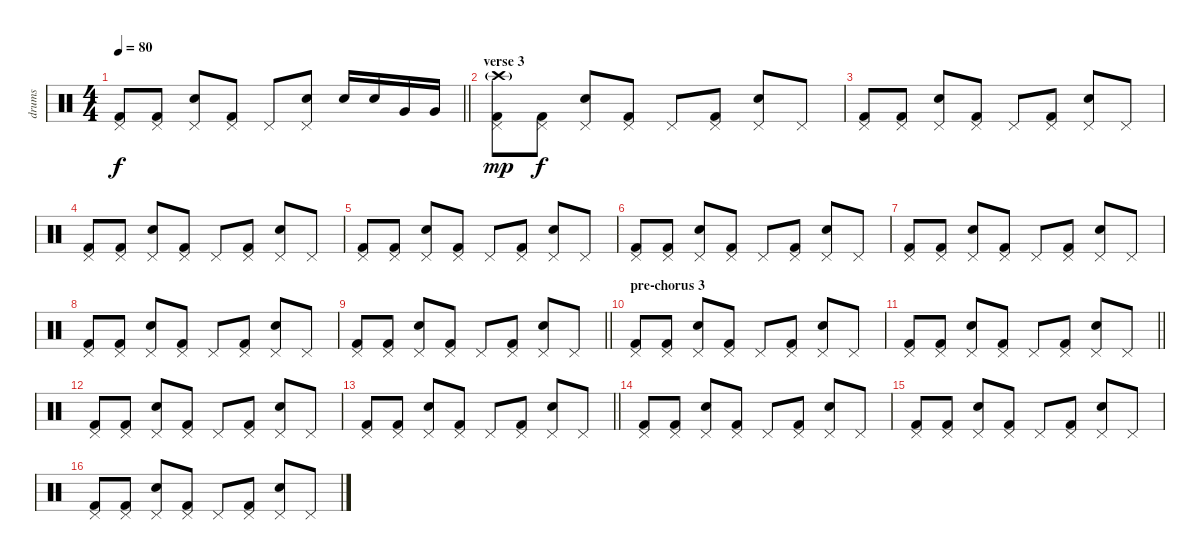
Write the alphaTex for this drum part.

\track ("drums" "drums") {instrument percussion}
\staff {score}
\articulation defaults
\ts (4 4)
\tempo 80
\clef neutral
\barLineRight lightlight
\ks c
("Kick (hit) 2" "Pedal Hi-Hat (hit)").8{dy f} ("Kick (hit) 2" "Pedal Hi-Hat (hit)").8 ("Electric Snare (hit)" "Pedal Hi-Hat (hit)").8 ("Kick (hit) 2" "Pedal Hi-Hat (hit)").8 "Pedal Hi-Hat (hit)".8 ("Electric Snare (hit)" "Pedal Hi-Hat (hit)").8 "Electric Snare (hit)".16 "Electric Snare (hit)".16 "Very Low Tom (hit)".16 "Very Low Tom (hit)".16 |
\section ("" "verse 3")
("Kick (hit) 2" "Pedal Hi-Hat (hit)" "Crash high (hit)"{g}).8{dy mp} ("Kick (hit) 2" "Pedal Hi-Hat (hit)").8{dy f} ("Electric Snare (hit)" "Pedal Hi-Hat (hit)").8 ("Kick (hit) 2" "Pedal Hi-Hat (hit)").8 "Pedal Hi-Hat (hit)".8 ("Kick (hit) 2" "Pedal Hi-Hat (hit)").8 ("Electric Snare (hit)" "Pedal Hi-Hat (hit)").8 "Pedal Hi-Hat (hit)".8 |
("Kick (hit) 2" "Pedal Hi-Hat (hit)").8 ("Kick (hit) 2" "Pedal Hi-Hat (hit)").8 ("Electric Snare (hit)" "Pedal Hi-Hat (hit)").8 ("Kick (hit) 2" "Pedal Hi-Hat (hit)").8 "Pedal Hi-Hat (hit)".8 ("Kick (hit) 2" "Pedal Hi-Hat (hit)").8 ("Electric Snare (hit)" "Pedal Hi-Hat (hit)").8 "Pedal Hi-Hat (hit)".8 |
("Kick (hit) 2" "Pedal Hi-Hat (hit)").8 ("Kick (hit) 2" "Pedal Hi-Hat (hit)").8 ("Electric Snare (hit)" "Pedal Hi-Hat (hit)").8 ("Kick (hit) 2" "Pedal Hi-Hat (hit)").8 "Pedal Hi-Hat (hit)".8 ("Kick (hit) 2" "Pedal Hi-Hat (hit)").8 ("Electric Snare (hit)" "Pedal Hi-Hat (hit)").8 "Pedal Hi-Hat (hit)".8 |
("Kick (hit) 2" "Pedal Hi-Hat (hit)").8 ("Kick (hit) 2" "Pedal Hi-Hat (hit)").8 ("Electric Snare (hit)" "Pedal Hi-Hat (hit)").8 ("Kick (hit) 2" "Pedal Hi-Hat (hit)").8 "Pedal Hi-Hat (hit)".8 ("Kick (hit) 2" "Pedal Hi-Hat (hit)").8 ("Electric Snare (hit)" "Pedal Hi-Hat (hit)").8 "Pedal Hi-Hat (hit)".8 |
("Kick (hit) 2" "Pedal Hi-Hat (hit)").8 ("Kick (hit) 2" "Pedal Hi-Hat (hit)").8 ("Electric Snare (hit)" "Pedal Hi-Hat (hit)").8 ("Kick (hit) 2" "Pedal Hi-Hat (hit)").8 "Pedal Hi-Hat (hit)".8 ("Kick (hit) 2" "Pedal Hi-Hat (hit)").8 ("Electric Snare (hit)" "Pedal Hi-Hat (hit)").8 "Pedal Hi-Hat (hit)".8 |
("Kick (hit) 2" "Pedal Hi-Hat (hit)").8 ("Kick (hit) 2" "Pedal Hi-Hat (hit)").8 ("Electric Snare (hit)" "Pedal Hi-Hat (hit)").8 ("Kick (hit) 2" "Pedal Hi-Hat (hit)").8 "Pedal Hi-Hat (hit)".8 ("Kick (hit) 2" "Pedal Hi-Hat (hit)").8 ("Electric Snare (hit)" "Pedal Hi-Hat (hit)").8 "Pedal Hi-Hat (hit)".8 |
("Kick (hit) 2" "Pedal Hi-Hat (hit)").8 ("Kick (hit) 2" "Pedal Hi-Hat (hit)").8 ("Electric Snare (hit)" "Pedal Hi-Hat (hit)").8 ("Kick (hit) 2" "Pedal Hi-Hat (hit)").8 "Pedal Hi-Hat (hit)".8 ("Kick (hit) 2" "Pedal Hi-Hat (hit)").8 ("Electric Snare (hit)" "Pedal Hi-Hat (hit)").8 "Pedal Hi-Hat (hit)".8 |
\barLineRight lightlight
("Kick (hit) 2" "Pedal Hi-Hat (hit)").8 ("Kick (hit) 2" "Pedal Hi-Hat (hit)").8 ("Electric Snare (hit)" "Pedal Hi-Hat (hit)").8 ("Kick (hit) 2" "Pedal Hi-Hat (hit)").8 "Pedal Hi-Hat (hit)".8 ("Kick (hit) 2" "Pedal Hi-Hat (hit)").8 ("Electric Snare (hit)" "Pedal Hi-Hat (hit)").8 "Pedal Hi-Hat (hit)".8 |
\section ("" "pre-chorus 3")
("Kick (hit) 2" "Pedal Hi-Hat (hit)").8 ("Kick (hit) 2" "Pedal Hi-Hat (hit)").8 ("Electric Snare (hit)" "Pedal Hi-Hat (hit)").8 ("Kick (hit) 2" "Pedal Hi-Hat (hit)").8 "Pedal Hi-Hat (hit)".8 ("Kick (hit) 2" "Pedal Hi-Hat (hit)").8 ("Electric Snare (hit)" "Pedal Hi-Hat (hit)").8 "Pedal Hi-Hat (hit)".8 |
\barLineRight lightlight
("Kick (hit) 2" "Pedal Hi-Hat (hit)").8 ("Kick (hit) 2" "Pedal Hi-Hat (hit)").8 ("Electric Snare (hit)" "Pedal Hi-Hat (hit)").8 ("Kick (hit) 2" "Pedal Hi-Hat (hit)").8 "Pedal Hi-Hat (hit)".8 ("Kick (hit) 2" "Pedal Hi-Hat (hit)").8 ("Electric Snare (hit)" "Pedal Hi-Hat (hit)").8 "Pedal Hi-Hat (hit)".8 |
("Kick (hit) 2" "Pedal Hi-Hat (hit)").8 ("Kick (hit) 2" "Pedal Hi-Hat (hit)").8 ("Electric Snare (hit)" "Pedal Hi-Hat (hit)").8 ("Kick (hit) 2" "Pedal Hi-Hat (hit)").8 "Pedal Hi-Hat (hit)".8 ("Kick (hit) 2" "Pedal Hi-Hat (hit)").8 ("Electric Snare (hit)" "Pedal Hi-Hat (hit)").8 "Pedal Hi-Hat (hit)".8 |
\barLineRight lightlight
("Kick (hit) 2" "Pedal Hi-Hat (hit)").8 ("Kick (hit) 2" "Pedal Hi-Hat (hit)").8 ("Electric Snare (hit)" "Pedal Hi-Hat (hit)").8 ("Kick (hit) 2" "Pedal Hi-Hat (hit)").8 "Pedal Hi-Hat (hit)".8 ("Kick (hit) 2" "Pedal Hi-Hat (hit)").8 ("Electric Snare (hit)" "Pedal Hi-Hat (hit)").8 "Pedal Hi-Hat (hit)".8 |
("Kick (hit) 2" "Pedal Hi-Hat (hit)").8 ("Kick (hit) 2" "Pedal Hi-Hat (hit)").8 ("Electric Snare (hit)" "Pedal Hi-Hat (hit)").8 ("Kick (hit) 2" "Pedal Hi-Hat (hit)").8 "Pedal Hi-Hat (hit)".8 ("Kick (hit) 2" "Pedal Hi-Hat (hit)").8 ("Electric Snare (hit)" "Pedal Hi-Hat (hit)").8 "Pedal Hi-Hat (hit)".8 |
("Kick (hit) 2" "Pedal Hi-Hat (hit)").8 ("Kick (hit) 2" "Pedal Hi-Hat (hit)").8 ("Electric Snare (hit)" "Pedal Hi-Hat (hit)").8 ("Kick (hit) 2" "Pedal Hi-Hat (hit)").8 "Pedal Hi-Hat (hit)".8 ("Kick (hit) 2" "Pedal Hi-Hat (hit)").8 ("Electric Snare (hit)" "Pedal Hi-Hat (hit)").8 "Pedal Hi-Hat (hit)".8 |
("Kick (hit) 2" "Pedal Hi-Hat (hit)").8 ("Kick (hit) 2" "Pedal Hi-Hat (hit)").8 ("Electric Snare (hit)" "Pedal Hi-Hat (hit)").8 ("Kick (hit) 2" "Pedal Hi-Hat (hit)").8 "Pedal Hi-Hat (hit)".8 ("Kick (hit) 2" "Pedal Hi-Hat (hit)").8 ("Electric Snare (hit)" "Pedal Hi-Hat (hit)").8 "Pedal Hi-Hat (hit)".8
